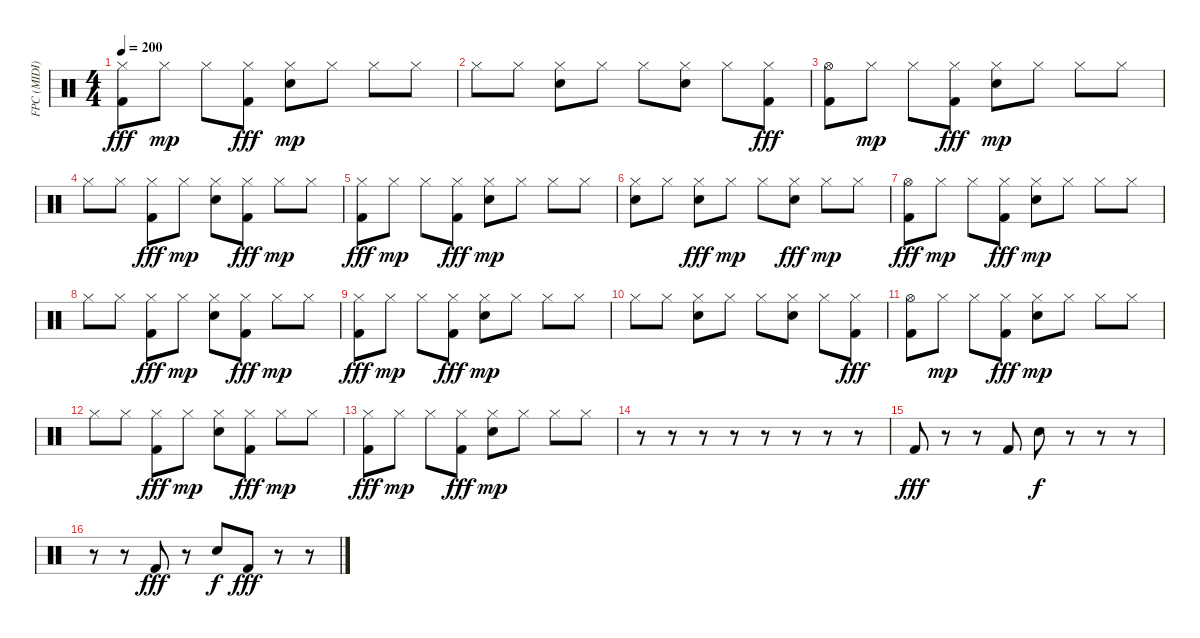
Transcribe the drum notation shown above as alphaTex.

\track ("FPC (MIDI)" "FPC (MIDI)") {instrument percussion}
\staff {score}
\articulation defaults
\ts (4 4)
\tempo 200
\clef neutral
\ks c
("Hi-Hat (closed)" "Kick (hit) 2").8{dy fff} "Hi-Hat (closed)".8{dy mp} "Hi-Hat (closed)".8 ("Hi-Hat (closed)" "Kick (hit) 2").8{dy fff} ("Hi-Hat (closed)" "Hand Clap (hit)").8{dy mp} "Hi-Hat (closed)".8 "Hi-Hat (closed)".8 "Hi-Hat (closed)".8 |
"Hi-Hat (closed)".8 "Hi-Hat (closed)".8 ("Hi-Hat (closed)" "Hand Clap (hit)").8 "Hi-Hat (closed)".8 "Hi-Hat (closed)".8 ("Hi-Hat (closed)" "Hand Clap (hit)").8 "Hi-Hat (closed)".8 ("Hi-Hat (closed)" "Kick (hit) 2").8{dy fff} |
("Hi-Hat (open)" "Kick (hit) 2").8 "Hi-Hat (closed)".8{dy mp} "Hi-Hat (closed)".8 ("Hi-Hat (closed)" "Kick (hit) 2").8{dy fff} ("Hi-Hat (closed)" "Hand Clap (hit)").8{dy mp} "Hi-Hat (closed)".8 "Hi-Hat (closed)".8 "Hi-Hat (closed)".8 |
"Hi-Hat (closed)".8 "Hi-Hat (closed)".8 ("Hi-Hat (closed)" "Kick (hit) 2").8{dy fff} "Hi-Hat (closed)".8{dy mp} ("Hi-Hat (closed)" "Hand Clap (hit)").8 ("Hi-Hat (closed)" "Kick (hit) 2").8{dy fff} "Hi-Hat (closed)".8{dy mp} "Hi-Hat (closed)".8 |
("Hi-Hat (closed)" "Kick (hit) 2").8{dy fff} "Hi-Hat (closed)".8{dy mp} "Hi-Hat (closed)".8 ("Hi-Hat (closed)" "Kick (hit) 2").8{dy fff} ("Hi-Hat (closed)" "Hand Clap (hit)").8{dy mp} "Hi-Hat (closed)".8 "Hi-Hat (closed)".8 "Hi-Hat (closed)".8 |
("Hi-Hat (closed)" "Hand Clap (hit)").8 "Hi-Hat (closed)".8 ("Hi-Hat (closed)" "Hand Clap (hit)").8{dy fff} "Hi-Hat (closed)".8{dy mp} "Hi-Hat (closed)".8 ("Hi-Hat (closed)" "Hand Clap (hit)").8{dy fff} "Hi-Hat (closed)".8{dy mp} "Hi-Hat (closed)".8 |
("Hi-Hat (open)" "Kick (hit) 2").8{dy fff} "Hi-Hat (closed)".8{dy mp} "Hi-Hat (closed)".8 ("Hi-Hat (closed)" "Kick (hit) 2").8{dy fff} ("Hi-Hat (closed)" "Hand Clap (hit)").8{dy mp} "Hi-Hat (closed)".8 "Hi-Hat (closed)".8 "Hi-Hat (closed)".8 |
"Hi-Hat (closed)".8 "Hi-Hat (closed)".8 ("Hi-Hat (closed)" "Kick (hit) 2").8{dy fff} "Hi-Hat (closed)".8{dy mp} ("Hi-Hat (closed)" "Hand Clap (hit)").8 ("Hi-Hat (closed)" "Kick (hit) 2").8{dy fff} "Hi-Hat (closed)".8{dy mp} "Hi-Hat (closed)".8 |
("Hi-Hat (closed)" "Kick (hit) 2").8{dy fff} "Hi-Hat (closed)".8{dy mp} "Hi-Hat (closed)".8 ("Hi-Hat (closed)" "Kick (hit) 2").8{dy fff} ("Hi-Hat (closed)" "Hand Clap (hit)").8{dy mp} "Hi-Hat (closed)".8 "Hi-Hat (closed)".8 "Hi-Hat (closed)".8 |
"Hi-Hat (closed)".8 "Hi-Hat (closed)".8 ("Hi-Hat (closed)" "Hand Clap (hit)").8 "Hi-Hat (closed)".8 "Hi-Hat (closed)".8 ("Hi-Hat (closed)" "Hand Clap (hit)").8 "Hi-Hat (closed)".8 ("Hi-Hat (closed)" "Kick (hit) 2").8{dy fff} |
("Hi-Hat (open)" "Kick (hit) 2").8 "Hi-Hat (closed)".8{dy mp} "Hi-Hat (closed)".8 ("Hi-Hat (closed)" "Kick (hit) 2").8{dy fff} ("Hi-Hat (closed)" "Hand Clap (hit)").8{dy mp} "Hi-Hat (closed)".8 "Hi-Hat (closed)".8 "Hi-Hat (closed)".8 |
"Hi-Hat (closed)".8 "Hi-Hat (closed)".8 ("Hi-Hat (closed)" "Kick (hit) 2").8{dy fff} "Hi-Hat (closed)".8{dy mp} ("Hi-Hat (closed)" "Hand Clap (hit)").8 ("Hi-Hat (closed)" "Kick (hit) 2").8{dy fff} "Hi-Hat (closed)".8{dy mp} "Hi-Hat (closed)".8 |
("Hi-Hat (closed)" "Kick (hit) 2").8{dy fff} "Hi-Hat (closed)".8{dy mp} "Hi-Hat (closed)".8 ("Hi-Hat (closed)" "Kick (hit) 2").8{dy fff} ("Hi-Hat (closed)" "Hand Clap (hit)").8{dy mp} "Hi-Hat (closed)".8 "Hi-Hat (closed)".8 "Hi-Hat (closed)".8 |
r.8 r.8 r.8 r.8 r.8 r.8 r.8 r.8 |
"Kick (hit) 2".8{dy fff} r.8 r.8 "Kick (hit) 2".8 "Hand Clap (hit)".8{dy f} r.8 r.8 r.8 |
r.8 r.8 "Kick (hit) 2".8{dy fff} r.8 "Hand Clap (hit)".8{dy f} "Kick (hit) 2".8{dy fff} r.8 r.8
